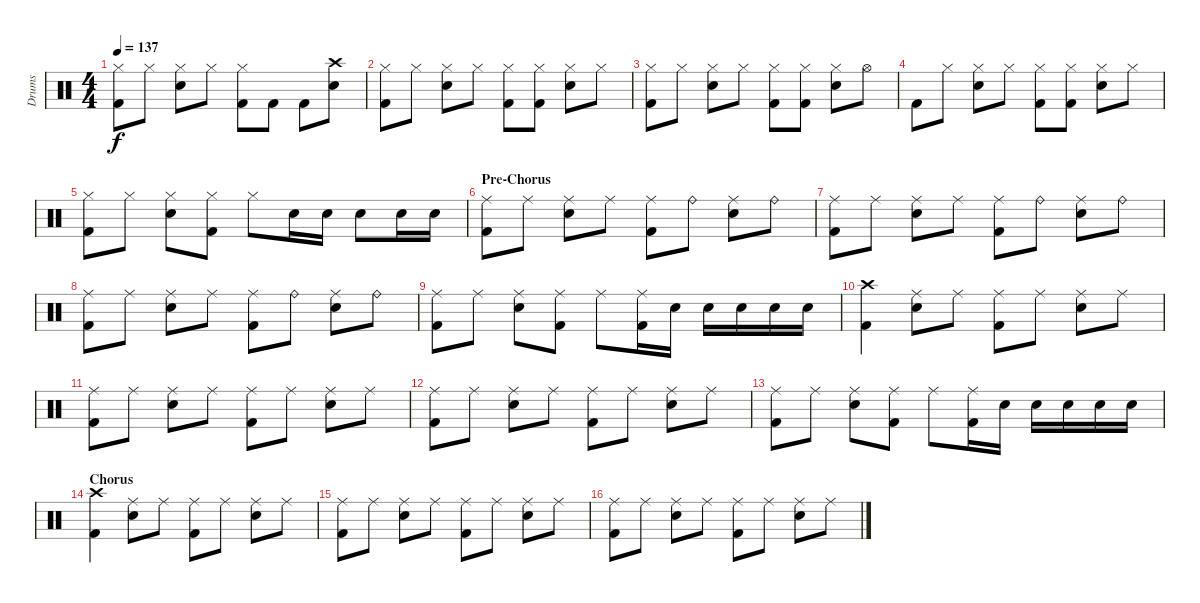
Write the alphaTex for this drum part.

\track ("Drums" "Drums") {instrument percussion}
\staff {score}
\articulation defaults
\ts (4 4)
\tempo 137
\clef neutral
\ks c
("Hi-Hat (closed)" "Kick (hit) 2").8{dy f} "Hi-Hat (closed)".8 ("Hi-Hat (closed)" "Snare (hit) 2").8 "Hi-Hat (closed)".8 ("Hi-Hat (closed)" "Kick (hit) 2").8 "Kick (hit) 2".8 "Kick (hit) 2".8 ("Crash high (hit)" "Snare (hit) 2").8 |
("Hi-Hat (closed)" "Kick (hit) 2").8 "Hi-Hat (closed)".8 ("Hi-Hat (closed)" "Snare (hit) 2").8 "Hi-Hat (closed)".8 ("Hi-Hat (closed)" "Kick (hit) 2").8 ("Hi-Hat (closed)" "Kick (hit) 2").8 ("Hi-Hat (closed)" "Snare (hit) 2").8 "Hi-Hat (closed)".8 |
("Hi-Hat (closed)" "Kick (hit) 2").8 "Hi-Hat (closed)".8 ("Hi-Hat (closed)" "Snare (hit) 2").8 "Hi-Hat (closed)".8 ("Hi-Hat (closed)" "Kick (hit) 2").8 ("Hi-Hat (closed)" "Kick (hit) 2").8 ("Hi-Hat (closed)" "Snare (hit) 2").8 "Hi-Hat (open)".8 |
"Kick (hit) 2".8 "Hi-Hat (closed)".8 ("Hi-Hat (closed)" "Snare (hit) 2").8 "Hi-Hat (closed)".8 ("Hi-Hat (closed)" "Kick (hit) 2").8 ("Hi-Hat (closed)" "Kick (hit) 2").8 ("Hi-Hat (closed)" "Snare (hit) 2").8 "Hi-Hat (closed)".8 |
("Hi-Hat (closed)" "Kick (hit) 2").8 "Hi-Hat (closed)".8 ("Hi-Hat (closed)" "Snare (hit) 2").8 ("Hi-Hat (closed)" "Kick (hit) 2").8 "Hi-Hat (closed)".8 "Snare (hit) 2".16 "Snare (hit) 2".16 "Snare (hit) 2".8 "Snare (hit) 2".16 "Snare (hit) 2".16 |
\section ("" "Pre-Chorus")
("Ride (middle)" "Kick (hit) 2").8 "Ride (middle)".8 ("Ride (middle)" "Snare (hit) 2").8 "Ride (middle)".8 ("Ride (middle)" "Kick (hit) 2").8 "Ride (bell)".8 ("Ride (middle)" "Snare (hit) 2").8 "Ride (bell)".8 |
("Ride (middle)" "Kick (hit) 2").8 "Ride (middle)".8 ("Ride (middle)" "Snare (hit) 2").8 "Ride (middle)".8 ("Ride (middle)" "Kick (hit) 2").8 "Ride (bell)".8 ("Ride (middle)" "Snare (hit) 2").8 "Ride (bell)".8 |
("Ride (middle)" "Kick (hit) 2").8 "Ride (middle)".8 ("Ride (middle)" "Snare (hit) 2").8 "Ride (middle)".8 ("Ride (middle)" "Kick (hit) 2").8 "Ride (bell)".8 ("Ride (middle)" "Snare (hit) 2").8 "Ride (bell)".8 |
("Ride (middle)" "Kick (hit) 2").8 "Ride (middle)".8 ("Ride (middle)" "Snare (hit) 2").8 ("Ride (middle)" "Kick (hit) 2").8 "Ride (middle)".8 ("Ride (middle)" "Kick (hit) 2").16 "Snare (hit) 2".16 "Snare (hit) 2".16 "Snare (hit) 2".16 "Snare (hit) 2".16 "Snare (hit) 2".16 |
("Crash high (hit)" "Kick (hit) 2").4 ("Ride (middle)" "Snare (hit) 2").8 "Ride (middle)".8 ("Ride (middle)" "Kick (hit) 2").8 "Ride (middle)".8 ("Ride (middle)" "Snare (hit) 2").8 "Ride (middle)".8 |
("Ride (middle)" "Kick (hit) 2").8 "Ride (middle)".8 ("Ride (middle)" "Snare (hit) 2").8 "Ride (middle)".8 ("Ride (middle)" "Kick (hit) 2").8 "Ride (middle)".8 ("Ride (middle)" "Snare (hit) 2").8 "Ride (middle)".8 |
("Ride (middle)" "Kick (hit) 2").8 "Ride (middle)".8 ("Ride (middle)" "Snare (hit) 2").8 "Ride (middle)".8 ("Ride (middle)" "Kick (hit) 2").8 "Ride (middle)".8 ("Ride (middle)" "Snare (hit) 2").8 "Ride (middle)".8 |
("Ride (middle)" "Kick (hit) 2").8 "Ride (middle)".8 ("Ride (middle)" "Snare (hit) 2").8 ("Ride (middle)" "Kick (hit) 2").8 "Ride (middle)".8 ("Ride (middle)" "Kick (hit) 2").16 "Snare (hit) 2".16 "Snare (hit) 2".16 "Snare (hit) 2".16 "Snare (hit) 2".16 "Snare (hit) 2".16 |
\section ("" "Chorus")
("Crash high (hit)" "Kick (hit) 2").4 ("Ride (middle)" "Snare (hit) 2").8 "Ride (middle)".8 ("Ride (middle)" "Kick (hit) 2").8 "Ride (middle)".8 ("Ride (middle)" "Snare (hit) 2").8 "Ride (middle)".8 |
("Ride (middle)" "Kick (hit) 2").8 "Ride (middle)".8 ("Ride (middle)" "Snare (hit) 2").8 "Ride (middle)".8 ("Ride (middle)" "Kick (hit) 2").8 "Ride (middle)".8 ("Ride (middle)" "Snare (hit) 2").8 "Ride (middle)".8 |
("Ride (middle)" "Kick (hit) 2").8 "Ride (middle)".8 ("Ride (middle)" "Snare (hit) 2").8 "Ride (middle)".8 ("Ride (middle)" "Kick (hit) 2").8 "Ride (middle)".8 ("Ride (middle)" "Snare (hit) 2").8 "Ride (middle)".8
